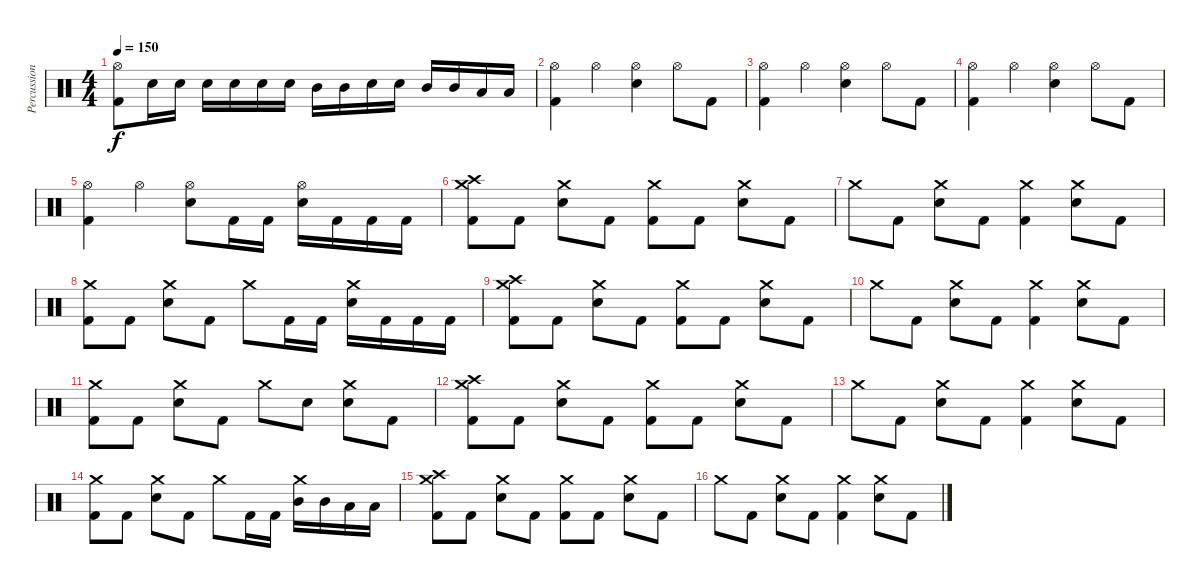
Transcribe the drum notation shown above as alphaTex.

\track ("Percussion" "Percussion") {instrument percussion}
\staff {score}
\articulation defaults
\ts (4 4)
\tempo 150
\clef neutral
\ks c
("Hi-Hat (open)" "Kick (hit) 2").8{dy f} "Electric Snare (hit)".16 "Electric Snare (hit)".16 "Electric Snare (hit)".16 "Electric Snare (hit)".16 "Electric Snare (hit)".16 "Electric Snare (hit)".16 "Mid Tom (hit)".16 "Mid Tom (hit)".16 "Electric Snare (hit)".16 "Electric Snare (hit)".16 "Mid Tom (hit)".16 "Mid Tom (hit)".16 "Low Tom (hit)".16 "Low Tom (hit)".16 |
("Hi-Hat (open)" "Kick (hit) 2").4 "Hi-Hat (open)".4 ("Hi-Hat (open)" "Electric Snare (hit)").4 "Hi-Hat (open)".8 "Kick (hit) 2".8 |
("Hi-Hat (open)" "Kick (hit) 2").4 "Hi-Hat (open)".4 ("Hi-Hat (open)" "Electric Snare (hit)").4 "Hi-Hat (open)".8 "Kick (hit) 2".8 |
("Hi-Hat (open)" "Kick (hit) 2").4 "Hi-Hat (open)".4 ("Hi-Hat (open)" "Electric Snare (hit)").4 "Hi-Hat (open)".8 "Kick (hit) 2".8 |
("Hi-Hat (open)" "Kick (hit) 2").4 "Hi-Hat (open)".4 ("Hi-Hat (open)" "Electric Snare (hit)").8 "Kick (hit) 2".16 "Kick (hit) 2".16 ("Hi-Hat (open)" "Electric Snare (hit)").16 "Kick (hit) 2".16 "Kick (hit) 2".16 "Kick (hit) 2".16 |
("Crash high (hit)" "Crash medium (hit)" "Kick (hit) 2").8 "Kick (hit) 2".8 ("Crash medium (hit)" "Electric Snare (hit)").8 "Kick (hit) 2".8 ("Crash medium (hit)" "Kick (hit) 2").8 "Kick (hit) 2".8 ("Crash medium (hit)" "Electric Snare (hit)").8 "Kick (hit) 2".8 |
"Crash medium (hit)".8 "Kick (hit) 2".8 ("Crash medium (hit)" "Electric Snare (hit)").8 "Kick (hit) 2".8 ("Crash medium (hit)" "Kick (hit) 2").4 ("Crash medium (hit)" "Electric Snare (hit)").8 "Kick (hit) 2".8 |
("Crash medium (hit)" "Kick (hit) 2").8 "Kick (hit) 2".8 ("Crash medium (hit)" "Electric Snare (hit)").8 "Kick (hit) 2".8 "Crash medium (hit)".8 "Kick (hit) 2".16 "Kick (hit) 2".16 ("Crash medium (hit)" "Electric Snare (hit)").16 "Kick (hit) 2".16 "Kick (hit) 2".16 "Kick (hit) 2".16 |
("Crash high (hit)" "Crash medium (hit)" "Kick (hit) 2").8 "Kick (hit) 2".8 ("Crash medium (hit)" "Electric Snare (hit)").8 "Kick (hit) 2".8 ("Crash medium (hit)" "Kick (hit) 2").8 "Kick (hit) 2".8 ("Crash medium (hit)" "Electric Snare (hit)").8 "Kick (hit) 2".8 |
"Crash medium (hit)".8 "Kick (hit) 2".8 ("Crash medium (hit)" "Electric Snare (hit)").8 "Kick (hit) 2".8 ("Crash medium (hit)" "Kick (hit) 2").4 ("Crash medium (hit)" "Electric Snare (hit)").8 "Kick (hit) 2".8 |
("Crash medium (hit)" "Kick (hit) 2").8 "Kick (hit) 2".8 ("Crash medium (hit)" "Electric Snare (hit)").8 "Kick (hit) 2".8 "Crash medium (hit)".8 "Electric Snare (hit)".8 ("Crash medium (hit)" "Electric Snare (hit)").8 "Kick (hit) 2".8 |
("Crash high (hit)" "Crash medium (hit)" "Kick (hit) 2").8 "Kick (hit) 2".8 ("Crash medium (hit)" "Electric Snare (hit)").8 "Kick (hit) 2".8 ("Crash medium (hit)" "Kick (hit) 2").8 "Kick (hit) 2".8 ("Crash medium (hit)" "Electric Snare (hit)").8 "Kick (hit) 2".8 |
"Crash medium (hit)".8 "Kick (hit) 2".8 ("Crash medium (hit)" "Electric Snare (hit)").8 "Kick (hit) 2".8 ("Crash medium (hit)" "Kick (hit) 2").4 ("Crash medium (hit)" "Electric Snare (hit)").8 "Kick (hit) 2".8 |
("Crash medium (hit)" "Kick (hit) 2").8 "Kick (hit) 2".8 ("Crash medium (hit)" "Electric Snare (hit)").8 "Kick (hit) 2".8 "Crash medium (hit)".8 "Kick (hit) 2".16 "Kick (hit) 2".16 ("Crash medium (hit)" "Mid Tom (hit)").16 "Mid Tom (hit)".16 "Low Tom (hit)".16 "Low Tom (hit)".16 |
("Crash high (hit)" "Crash medium (hit)" "Kick (hit) 2").8 "Kick (hit) 2".8 ("Crash medium (hit)" "Electric Snare (hit)").8 "Kick (hit) 2".8 ("Crash medium (hit)" "Kick (hit) 2").8 "Kick (hit) 2".8 ("Crash medium (hit)" "Electric Snare (hit)").8 "Kick (hit) 2".8 |
"Crash medium (hit)".8 "Kick (hit) 2".8 ("Crash medium (hit)" "Electric Snare (hit)").8 "Kick (hit) 2".8 ("Crash medium (hit)" "Kick (hit) 2").4 ("Crash medium (hit)" "Electric Snare (hit)").8 "Kick (hit) 2".8
